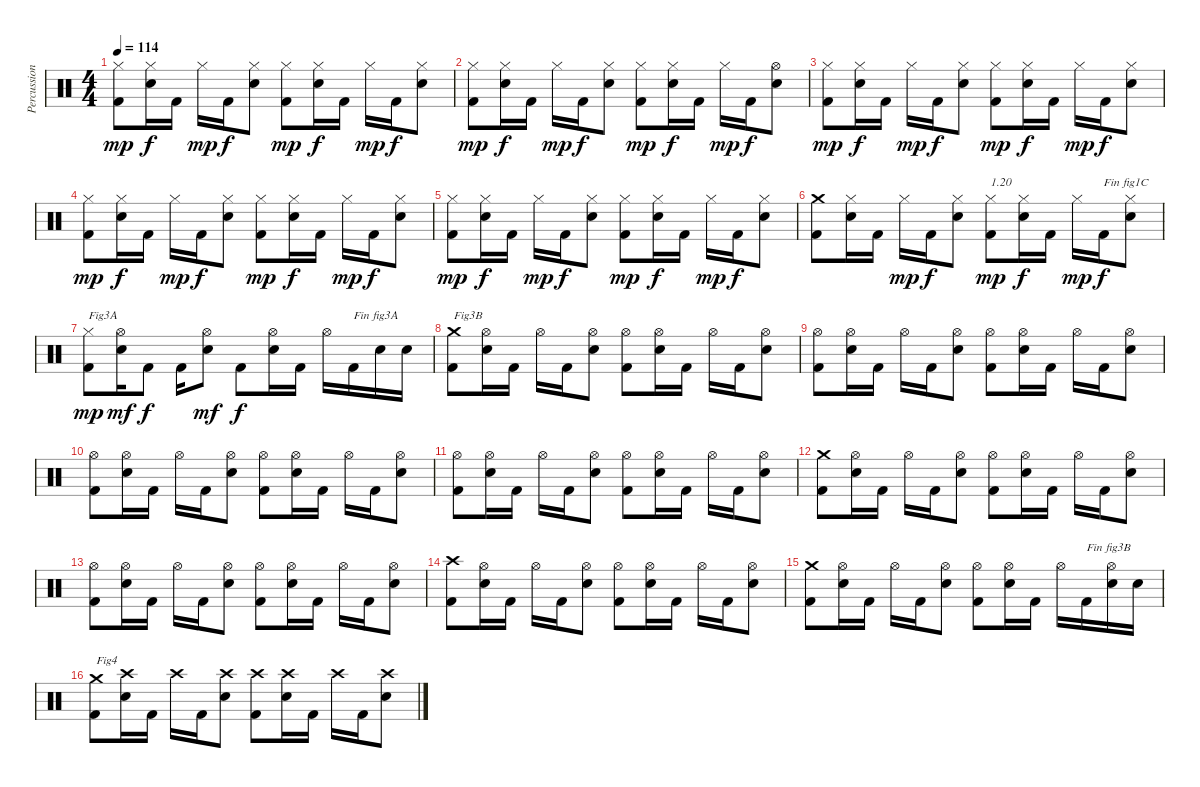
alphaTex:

\track ("Percussions" "Percussion") {instrument percussion}
\staff {score}
\articulation defaults
\ts (4 4)
\tempo 114
\clef neutral
\ks c
("Kick (hit) 2" "Hi-Hat (closed)").8{dy mp} ("Electric Snare (hit)" "Hi-Hat (closed)").16{dy f} "Kick (hit) 2".16 "Hi-Hat (closed)".16{dy mp} "Kick (hit) 2".16{dy f} ("Electric Snare (hit)" "Hi-Hat (closed)").8 ("Kick (hit) 2" "Hi-Hat (closed)").8{dy mp} ("Electric Snare (hit)" "Hi-Hat (closed)").16{dy f} "Kick (hit) 2".16 "Hi-Hat (closed)".16{dy mp} "Kick (hit) 2".16{dy f} ("Electric Snare (hit)" "Hi-Hat (closed)").8 |
("Kick (hit) 2" "Hi-Hat (closed)").8{dy mp} ("Electric Snare (hit)" "Hi-Hat (closed)").16{dy f} "Kick (hit) 2".16 "Hi-Hat (closed)".16{dy mp} "Kick (hit) 2".16{dy f} ("Electric Snare (hit)" "Hi-Hat (closed)").8 ("Kick (hit) 2" "Hi-Hat (closed)").8{dy mp} ("Electric Snare (hit)" "Hi-Hat (closed)").16{dy f} "Kick (hit) 2".16 "Hi-Hat (closed)".16{dy mp} "Kick (hit) 2".16{dy f} ("Electric Snare (hit)" "Hi-Hat (open)").8 |
("Kick (hit) 2" "Hi-Hat (closed)").8{dy mp} ("Electric Snare (hit)" "Hi-Hat (closed)").16{dy f} "Kick (hit) 2".16 "Hi-Hat (closed)".16{dy mp} "Kick (hit) 2".16{dy f} ("Electric Snare (hit)" "Hi-Hat (closed)").8 ("Kick (hit) 2" "Hi-Hat (closed)").8{dy mp} ("Electric Snare (hit)" "Hi-Hat (closed)").16{dy f} "Kick (hit) 2".16 "Hi-Hat (closed)".16{dy mp} "Kick (hit) 2".16{dy f} ("Electric Snare (hit)" "Hi-Hat (closed)").8 |
("Kick (hit) 2" "Hi-Hat (closed)").8{dy mp} ("Electric Snare (hit)" "Hi-Hat (closed)").16{dy f} "Kick (hit) 2".16 "Hi-Hat (closed)".16{dy mp} "Kick (hit) 2".16{dy f} ("Electric Snare (hit)" "Hi-Hat (closed)").8 ("Kick (hit) 2" "Hi-Hat (closed)").8{dy mp} ("Electric Snare (hit)" "Hi-Hat (closed)").16{dy f} "Kick (hit) 2".16 "Hi-Hat (closed)".16{dy mp} "Kick (hit) 2".16{dy f} ("Electric Snare (hit)" "Hi-Hat (closed)").8 |
("Kick (hit) 2" "Hi-Hat (closed)").8{dy mp} ("Electric Snare (hit)" "Hi-Hat (closed)").16{dy f} "Kick (hit) 2".16 "Hi-Hat (closed)".16{dy mp} "Kick (hit) 2".16{dy f} ("Electric Snare (hit)" "Hi-Hat (closed)").8 ("Kick (hit) 2" "Hi-Hat (closed)").8{dy mp} ("Electric Snare (hit)" "Hi-Hat (closed)").16{dy f} "Kick (hit) 2".16 "Hi-Hat (closed)".16{dy mp} "Kick (hit) 2".16{dy f} ("Electric Snare (hit)" "Hi-Hat (closed)").8 |
("Kick (hit) 2" "Crash medium (hit)").8 ("Electric Snare (hit)" "Hi-Hat (closed)").16 "Kick (hit) 2".16 "Hi-Hat (closed)".16{dy mp} "Kick (hit) 2".16{dy f} ("Electric Snare (hit)" "Hi-Hat (closed)").8 ("Kick (hit) 2" "Hi-Hat (closed)").8{txt "1.20" dy mp} ("Electric Snare (hit)" "Hi-Hat (closed)").16{dy f} "Kick (hit) 2".16 "Hi-Hat (closed)".16{dy mp} "Kick (hit) 2".16{txt "Fin fig1C" dy f} ("Electric Snare (hit)" "Hi-Hat (closed)").8 |
("Kick (hit) 2" "Hi-Hat (closed)").8{txt "Fig3A" dy mp} ("Electric Snare (hit)" "Hi-Hat (open)").16{dy mf} "Kick (hit) 2".8{dy f} "Kick (hit) 2".16 ("Electric Snare (hit)" "Hi-Hat (open)").8{dy mf} "Kick (hit) 2".8{dy f} ("Electric Snare (hit)" "Hi-Hat (open)").16 "Kick (hit) 2".16 "Hi-Hat (open)".16 "Kick (hit) 2".16{txt "Fin fig3A"} "Electric Snare (hit)".16 "Electric Snare (hit)".16 |
("Kick (hit) 2" "Crash medium (hit)").8{txt "Fig3B"} ("Electric Snare (hit)" "Hi-Hat (open)").16 "Kick (hit) 2".16 "Hi-Hat (open)".16 "Kick (hit) 2".16 ("Electric Snare (hit)" "Hi-Hat (open)").8 ("Kick (hit) 2" "Hi-Hat (open)").8 ("Electric Snare (hit)" "Hi-Hat (open)").16 "Kick (hit) 2".16 "Hi-Hat (open)".16 "Kick (hit) 2".16 ("Electric Snare (hit)" "Hi-Hat (open)").8 |
("Kick (hit) 2" "Hi-Hat (open)").8 ("Electric Snare (hit)" "Hi-Hat (open)").16 "Kick (hit) 2".16 "Hi-Hat (open)".16 "Kick (hit) 2".16 ("Electric Snare (hit)" "Hi-Hat (open)").8 ("Kick (hit) 2" "Hi-Hat (open)").8 ("Electric Snare (hit)" "Hi-Hat (open)").16 "Kick (hit) 2".16 "Hi-Hat (open)".16 "Kick (hit) 2".16 ("Electric Snare (hit)" "Hi-Hat (open)").8 |
("Kick (hit) 2" "Hi-Hat (open)").8 ("Electric Snare (hit)" "Hi-Hat (open)").16 "Kick (hit) 2".16 "Hi-Hat (open)".16 "Kick (hit) 2".16 ("Electric Snare (hit)" "Hi-Hat (open)").8 ("Kick (hit) 2" "Hi-Hat (open)").8 ("Electric Snare (hit)" "Hi-Hat (open)").16 "Kick (hit) 2".16 "Hi-Hat (open)".16 "Kick (hit) 2".16 ("Electric Snare (hit)" "Hi-Hat (open)").8 |
("Kick (hit) 2" "Hi-Hat (open)").8 ("Electric Snare (hit)" "Hi-Hat (open)").16 "Kick (hit) 2".16 "Hi-Hat (open)".16 "Kick (hit) 2".16 ("Electric Snare (hit)" "Hi-Hat (open)").8 ("Kick (hit) 2" "Hi-Hat (open)").8 ("Electric Snare (hit)" "Hi-Hat (open)").16 "Kick (hit) 2".16 "Hi-Hat (open)".16 "Kick (hit) 2".16 ("Electric Snare (hit)" "Hi-Hat (open)").8 |
("Kick (hit) 2" "Crash medium (hit)").8 ("Electric Snare (hit)" "Hi-Hat (open)").16 "Kick (hit) 2".16 "Hi-Hat (open)".16 "Kick (hit) 2".16 ("Electric Snare (hit)" "Hi-Hat (open)").8 ("Kick (hit) 2" "Hi-Hat (open)").8 ("Electric Snare (hit)" "Hi-Hat (open)").16 "Kick (hit) 2".16 "Hi-Hat (open)".16 "Kick (hit) 2".16 ("Electric Snare (hit)" "Hi-Hat (open)").8 |
("Kick (hit) 2" "Hi-Hat (open)").8 ("Electric Snare (hit)" "Hi-Hat (open)").16 "Kick (hit) 2".16 "Hi-Hat (open)".16 "Kick (hit) 2".16 ("Electric Snare (hit)" "Hi-Hat (open)").8 ("Kick (hit) 2" "Hi-Hat (open)").8 ("Electric Snare (hit)" "Hi-Hat (open)").16 "Kick (hit) 2".16 "Hi-Hat (open)".16 "Kick (hit) 2".16 ("Electric Snare (hit)" "Hi-Hat (open)").8 |
("Kick (hit) 2" "Crash high (hit)").8 ("Electric Snare (hit)" "Hi-Hat (open)").16 "Kick (hit) 2".16 "Hi-Hat (open)".16 "Kick (hit) 2".16 ("Electric Snare (hit)" "Hi-Hat (open)").8 ("Kick (hit) 2" "Hi-Hat (open)").8 ("Electric Snare (hit)" "Hi-Hat (open)").16 "Kick (hit) 2".16 "Hi-Hat (open)".16 "Kick (hit) 2".16 ("Electric Snare (hit)" "Hi-Hat (open)").8 |
("Kick (hit) 2" "Crash medium (hit)").8 ("Electric Snare (hit)" "Hi-Hat (open)").16 "Kick (hit) 2".16 "Hi-Hat (open)".16 "Kick (hit) 2".16 ("Electric Snare (hit)" "Hi-Hat (open)").8 ("Kick (hit) 2" "Hi-Hat (open)").8 ("Electric Snare (hit)" "Hi-Hat (open)").16 "Kick (hit) 2".16 "Hi-Hat (open)".16 "Kick (hit) 2".16{txt "Fin fig3B"} ("Electric Snare (hit)" "Hi-Hat (open)").16 "Electric Snare (hit)".16 |
("Kick (hit) 2" "Crash medium (hit)").8{txt "Fig4"} ("Electric Snare (hit)" "Crash high (hit)").16 "Kick (hit) 2".16 "Crash high (hit)".16 "Kick (hit) 2".16 ("Electric Snare (hit)" "Crash high (hit)").8 ("Kick (hit) 2" "Crash high (hit)").8 ("Electric Snare (hit)" "Crash high (hit)").16 "Kick (hit) 2".16 "Crash high (hit)".16 "Kick (hit) 2".16 ("Electric Snare (hit)" "Crash high (hit)").8
